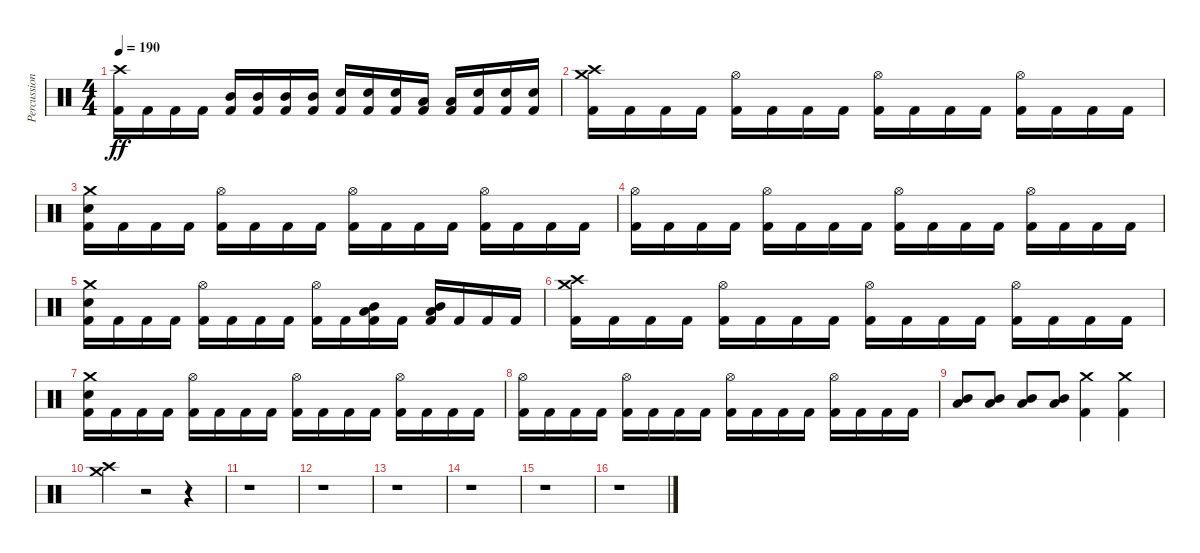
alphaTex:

\track ("Percussion" "Percussion") {instrument percussion}
\staff {score}
\articulation defaults
\ts (4 4)
\tempo 190
\clef neutral
\ks c
("Kick (hit) 2" "Crash high (hit)").16{dy ff} "Kick (hit) 2".16 "Kick (hit) 2".16 "Kick (hit) 2".16 ("Kick (hit) 2" "Mid Tom (hit)").16 ("Kick (hit) 2" "Mid Tom (hit)").16 ("Kick (hit) 2" "Mid Tom (hit)").16 ("Kick (hit) 2" "Mid Tom (hit)").16 ("Kick (hit) 2" "Electric Snare (hit)").16 ("Kick (hit) 2" "Electric Snare (hit)").16 ("Kick (hit) 2" "Electric Snare (hit)").16 ("Kick (hit) 2" "Low Tom (hit)").16 ("Kick (hit) 2" "Low Tom (hit)").16 ("Kick (hit) 2" "Electric Snare (hit)").16 ("Kick (hit) 2" "Electric Snare (hit)").16 ("Kick (hit) 2" "Electric Snare (hit)").16 |
("Kick (hit) 2" "Crash medium (hit)" "Crash high (hit)").16 "Kick (hit) 2".16 "Kick (hit) 2".16 "Kick (hit) 2".16 ("Kick (hit) 2" "Hi-Hat (open)").16 "Kick (hit) 2".16 "Kick (hit) 2".16 "Kick (hit) 2".16 ("Kick (hit) 2" "Hi-Hat (open)").16 "Kick (hit) 2".16 "Kick (hit) 2".16 "Kick (hit) 2".16 ("Kick (hit) 2" "Hi-Hat (open)").16 "Kick (hit) 2".16 "Kick (hit) 2".16 "Kick (hit) 2".16 |
("Kick (hit) 2" "Crash medium (hit)" "Electric Snare (hit)").16 "Kick (hit) 2".16 "Kick (hit) 2".16 "Kick (hit) 2".16 ("Kick (hit) 2" "Hi-Hat (open)").16 "Kick (hit) 2".16 "Kick (hit) 2".16 "Kick (hit) 2".16 ("Kick (hit) 2" "Hi-Hat (open)").16 "Kick (hit) 2".16 "Kick (hit) 2".16 "Kick (hit) 2".16 ("Kick (hit) 2" "Hi-Hat (open)").16 "Kick (hit) 2".16 "Kick (hit) 2".16 "Kick (hit) 2".16 |
("Kick (hit) 2" "Hi-Hat (open)").16 "Kick (hit) 2".16 "Kick (hit) 2".16 "Kick (hit) 2".16 ("Kick (hit) 2" "Hi-Hat (open)").16 "Kick (hit) 2".16 "Kick (hit) 2".16 "Kick (hit) 2".16 ("Kick (hit) 2" "Hi-Hat (open)").16 "Kick (hit) 2".16 "Kick (hit) 2".16 "Kick (hit) 2".16 ("Kick (hit) 2" "Hi-Hat (open)").16 "Kick (hit) 2".16 "Kick (hit) 2".16 "Kick (hit) 2".16 |
("Kick (hit) 2" "Crash medium (hit)" "Electric Snare (hit)").16 "Kick (hit) 2".16 "Kick (hit) 2".16 "Kick (hit) 2".16 ("Kick (hit) 2" "Hi-Hat (open)").16 "Kick (hit) 2".16 "Kick (hit) 2".16 "Kick (hit) 2".16 ("Kick (hit) 2" "Hi-Hat (open)").16 "Kick (hit) 2".16 ("Kick (hit) 2" "Low Tom (hit)" "Mid Tom (hit)").16 "Kick (hit) 2".16 ("Kick (hit) 2" "Low Tom (hit)" "Mid Tom (hit)").16 "Kick (hit) 2".16 "Kick (hit) 2".16 "Kick (hit) 2".16 |
("Kick (hit) 2" "Crash medium (hit)" "Crash high (hit)").16 "Kick (hit) 2".16 "Kick (hit) 2".16 "Kick (hit) 2".16 ("Kick (hit) 2" "Hi-Hat (open)").16 "Kick (hit) 2".16 "Kick (hit) 2".16 "Kick (hit) 2".16 ("Kick (hit) 2" "Hi-Hat (open)").16 "Kick (hit) 2".16 "Kick (hit) 2".16 "Kick (hit) 2".16 ("Kick (hit) 2" "Hi-Hat (open)").16 "Kick (hit) 2".16 "Kick (hit) 2".16 "Kick (hit) 2".16 |
("Kick (hit) 2" "Crash medium (hit)" "Electric Snare (hit)").16 "Kick (hit) 2".16 "Kick (hit) 2".16 "Kick (hit) 2".16 ("Kick (hit) 2" "Hi-Hat (open)").16 "Kick (hit) 2".16 "Kick (hit) 2".16 "Kick (hit) 2".16 ("Kick (hit) 2" "Hi-Hat (open)").16 "Kick (hit) 2".16 "Kick (hit) 2".16 "Kick (hit) 2".16 ("Kick (hit) 2" "Hi-Hat (open)").16 "Kick (hit) 2".16 "Kick (hit) 2".16 "Kick (hit) 2".16 |
("Kick (hit) 2" "Hi-Hat (open)").16 "Kick (hit) 2".16 "Kick (hit) 2".16 "Kick (hit) 2".16 ("Kick (hit) 2" "Hi-Hat (open)").16 "Kick (hit) 2".16 "Kick (hit) 2".16 "Kick (hit) 2".16 ("Kick (hit) 2" "Hi-Hat (open)").16 "Kick (hit) 2".16 "Kick (hit) 2".16 "Kick (hit) 2".16 ("Kick (hit) 2" "Hi-Hat (open)").16 "Kick (hit) 2".16 "Kick (hit) 2".16 "Kick (hit) 2".16 |
("Low Tom (hit)" "Mid Tom (hit)").8 ("Low Tom (hit)" "Mid Tom (hit)").8 ("Low Tom (hit)" "Mid Tom (hit)").8 ("Low Tom (hit)" "Mid Tom (hit)").8 ("Kick (hit) 2" "Crash medium (hit)").4 ("Kick (hit) 2" "Crash medium (hit)").4 |
("Crash medium (hit)" "Crash high (hit)").4 r.2 r.4 |
r.1 |
r.1 |
r.1 |
r.1 |
r.1 |
r.1
